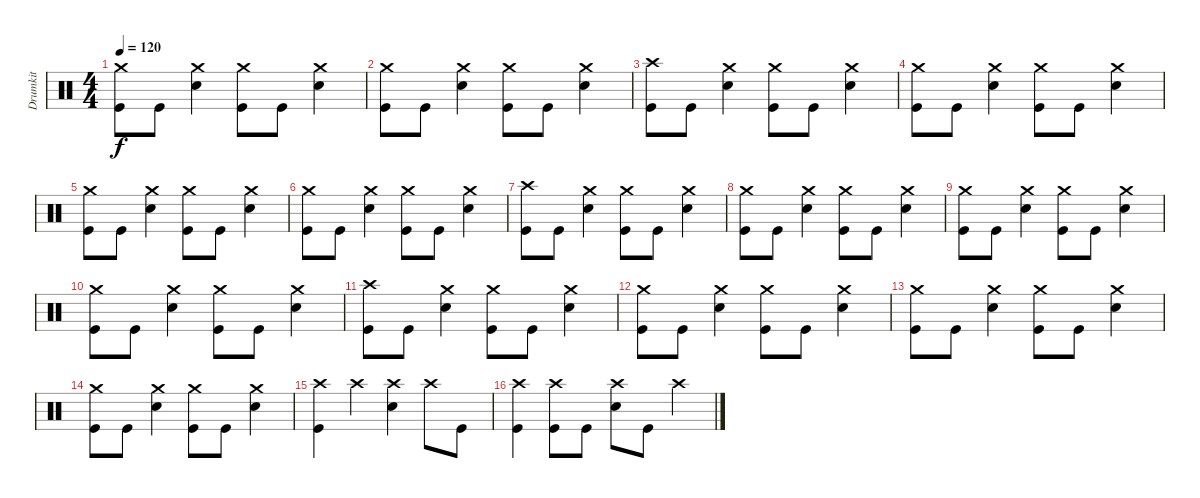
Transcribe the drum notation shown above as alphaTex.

\track ("Drumkit" "Drumkit") {instrument percussion}
\staff {score}
\articulation defaults
\ts (4 4)
\tempo 120
\clef neutral
\ks c
("Crash medium (hit)" "Kick (hit)").8{dy f} "Kick (hit)".8 ("Crash medium (hit)" "Snare (hit) 2").4 ("Crash medium (hit)" "Kick (hit)").8 "Kick (hit)".8 ("Crash medium (hit)" "Snare (hit) 2").4 |
("Crash medium (hit)" "Kick (hit)").8 "Kick (hit)".8 ("Crash medium (hit)" "Snare (hit) 2").4 ("Crash medium (hit)" "Kick (hit)").8 "Kick (hit)".8 ("Crash medium (hit)" "Snare (hit) 2").4 |
("Crash high (hit)" "Kick (hit)").8 "Kick (hit)".8 ("Crash medium (hit)" "Snare (hit) 2").4 ("Crash medium (hit)" "Kick (hit)").8 "Kick (hit)".8 ("Crash medium (hit)" "Snare (hit) 2").4 |
("Crash medium (hit)" "Kick (hit)").8 "Kick (hit)".8 ("Crash medium (hit)" "Snare (hit) 2").4 ("Crash medium (hit)" "Kick (hit)").8 "Kick (hit)".8 ("Crash medium (hit)" "Snare (hit) 2").4 |
("Crash medium (hit)" "Kick (hit)").8 "Kick (hit)".8 ("Crash medium (hit)" "Snare (hit) 2").4 ("Crash medium (hit)" "Kick (hit)").8 "Kick (hit)".8 ("Crash medium (hit)" "Snare (hit) 2").4 |
("Crash medium (hit)" "Kick (hit)").8 "Kick (hit)".8 ("Crash medium (hit)" "Snare (hit) 2").4 ("Crash medium (hit)" "Kick (hit)").8 "Kick (hit)".8 ("Crash medium (hit)" "Snare (hit) 2").4 |
("Crash high (hit)" "Kick (hit)").8 "Kick (hit)".8 ("Crash medium (hit)" "Snare (hit) 2").4 ("Crash medium (hit)" "Kick (hit)").8 "Kick (hit)".8 ("Crash medium (hit)" "Snare (hit) 2").4 |
("Crash medium (hit)" "Kick (hit)").8 "Kick (hit)".8 ("Crash medium (hit)" "Snare (hit) 2").4 ("Crash medium (hit)" "Kick (hit)").8 "Kick (hit)".8 ("Crash medium (hit)" "Snare (hit) 2").4 |
("Crash medium (hit)" "Kick (hit)").8 "Kick (hit)".8 ("Crash medium (hit)" "Snare (hit) 2").4 ("Crash medium (hit)" "Kick (hit)").8 "Kick (hit)".8 ("Crash medium (hit)" "Snare (hit) 2").4 |
("Crash medium (hit)" "Kick (hit)").8 "Kick (hit)".8 ("Crash medium (hit)" "Snare (hit) 2").4 ("Crash medium (hit)" "Kick (hit)").8 "Kick (hit)".8 ("Crash medium (hit)" "Snare (hit) 2").4 |
("Crash high (hit)" "Kick (hit)").8 "Kick (hit)".8 ("Crash medium (hit)" "Snare (hit) 2").4 ("Crash medium (hit)" "Kick (hit)").8 "Kick (hit)".8 ("Crash medium (hit)" "Snare (hit) 2").4 |
("Crash medium (hit)" "Kick (hit)").8 "Kick (hit)".8 ("Crash medium (hit)" "Snare (hit) 2").4 ("Crash medium (hit)" "Kick (hit)").8 "Kick (hit)".8 ("Crash medium (hit)" "Snare (hit) 2").4 |
("Crash medium (hit)" "Kick (hit)").8 "Kick (hit)".8 ("Crash medium (hit)" "Snare (hit) 2").4 ("Crash medium (hit)" "Kick (hit)").8 "Kick (hit)".8 ("Crash medium (hit)" "Snare (hit) 2").4 |
("Crash medium (hit)" "Kick (hit)").8 "Kick (hit)".8 ("Crash medium (hit)" "Snare (hit) 2").4 ("Crash medium (hit)" "Kick (hit)").8 "Kick (hit)".8 ("Crash medium (hit)" "Snare (hit) 2").4 |
("Crash high (hit)" "Kick (hit)").4 "Crash high (hit)".4 ("Crash high (hit)" "Snare (hit) 2").4 "Crash high (hit)".8 "Kick (hit)".8 |
("Crash high (hit)" "Kick (hit)").4 ("Crash high (hit)" "Kick (hit)").8 "Kick (hit)".8 ("Crash high (hit)" "Snare (hit) 2").8 "Kick (hit)".8 "Crash high (hit)".4
